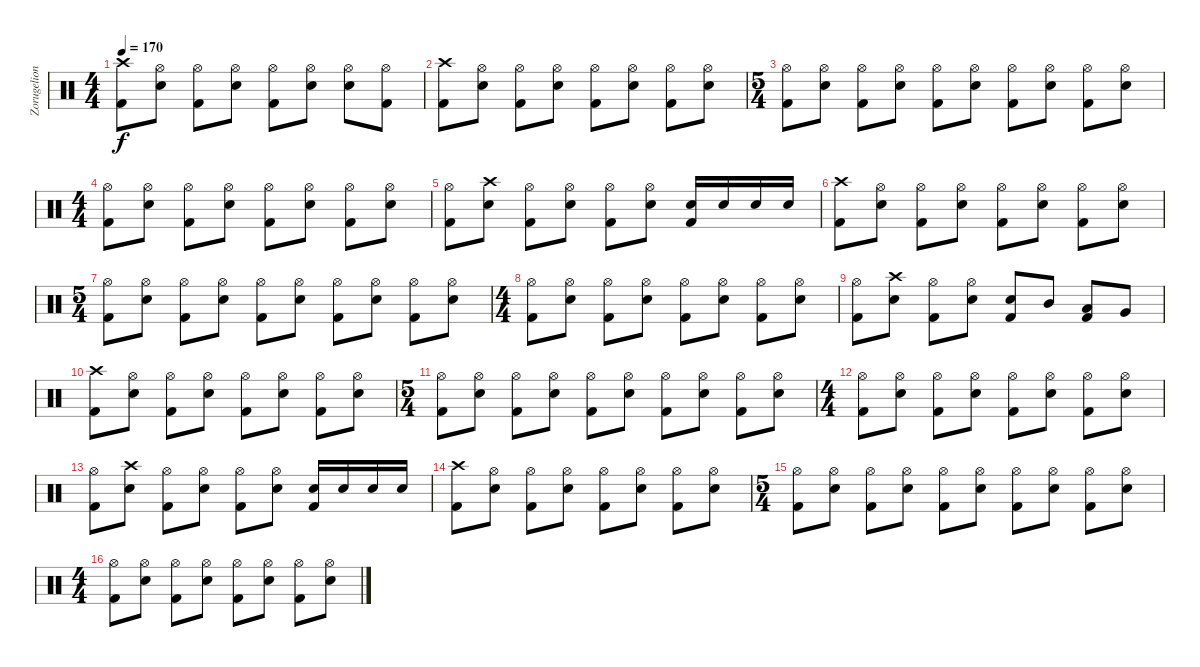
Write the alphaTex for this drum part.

\track ("Zorugelion" "Zorugelion") {instrument percussion}
\staff {score}
\articulation defaults
\ts (4 4)
\tempo 170
\clef neutral
\ks c
("Crash high (hit)" "Kick (hit) 2").8{dy f} ("Hi-Hat (open)" "Electric Snare (hit)").8 ("Hi-Hat (open)" "Kick (hit) 2").8 ("Hi-Hat (open)" "Electric Snare (hit)").8 ("Hi-Hat (open)" "Kick (hit) 2").8 ("Hi-Hat (open)" "Electric Snare (hit)").8 ("Hi-Hat (open)" "Electric Snare (hit)").8 ("Hi-Hat (open)" "Kick (hit) 2").8 |
("Crash high (hit)" "Kick (hit) 2").8 ("Hi-Hat (open)" "Electric Snare (hit)").8 ("Hi-Hat (open)" "Kick (hit) 2").8 ("Hi-Hat (open)" "Electric Snare (hit)").8 ("Hi-Hat (open)" "Kick (hit) 2").8 ("Hi-Hat (open)" "Electric Snare (hit)").8 ("Hi-Hat (open)" "Kick (hit) 2").8 ("Hi-Hat (open)" "Electric Snare (hit)").8 |
\ts (5 4)
("Hi-Hat (open)" "Kick (hit) 2").8 ("Hi-Hat (open)" "Electric Snare (hit)").8 ("Hi-Hat (open)" "Kick (hit) 2").8 ("Hi-Hat (open)" "Electric Snare (hit)").8 ("Hi-Hat (open)" "Kick (hit) 2").8 ("Hi-Hat (open)" "Electric Snare (hit)").8 ("Hi-Hat (open)" "Kick (hit) 2").8 ("Hi-Hat (open)" "Electric Snare (hit)").8 ("Hi-Hat (open)" "Kick (hit) 2").8 ("Hi-Hat (open)" "Electric Snare (hit)").8 |
\ts (4 4)
("Hi-Hat (open)" "Kick (hit) 2").8 ("Hi-Hat (open)" "Electric Snare (hit)").8 ("Hi-Hat (open)" "Kick (hit) 2").8 ("Hi-Hat (open)" "Electric Snare (hit)").8 ("Hi-Hat (open)" "Kick (hit) 2").8 ("Hi-Hat (open)" "Electric Snare (hit)").8 ("Hi-Hat (open)" "Kick (hit) 2").8 ("Hi-Hat (open)" "Electric Snare (hit)").8 |
("Hi-Hat (open)" "Kick (hit) 2").8 ("Crash high (hit)" "Electric Snare (hit)").8 ("Hi-Hat (open)" "Kick (hit) 2").8 ("Hi-Hat (open)" "Electric Snare (hit)").8 ("Hi-Hat (open)" "Kick (hit) 2").8 ("Hi-Hat (open)" "Electric Snare (hit)").8 ("Electric Snare (hit)" "Kick (hit) 2").16 "Electric Snare (hit)".16 "Electric Snare (hit)".16 "Electric Snare (hit)".16 |
("Crash high (hit)" "Kick (hit) 2").8 ("Hi-Hat (open)" "Electric Snare (hit)").8 ("Hi-Hat (open)" "Kick (hit) 2").8 ("Hi-Hat (open)" "Electric Snare (hit)").8 ("Hi-Hat (open)" "Kick (hit) 2").8 ("Hi-Hat (open)" "Electric Snare (hit)").8 ("Hi-Hat (open)" "Kick (hit) 2").8 ("Hi-Hat (open)" "Electric Snare (hit)").8 |
\ts (5 4)
("Hi-Hat (open)" "Kick (hit) 2").8 ("Hi-Hat (open)" "Electric Snare (hit)").8 ("Hi-Hat (open)" "Kick (hit) 2").8 ("Hi-Hat (open)" "Electric Snare (hit)").8 ("Hi-Hat (open)" "Kick (hit) 2").8 ("Hi-Hat (open)" "Electric Snare (hit)").8 ("Hi-Hat (open)" "Kick (hit) 2").8 ("Hi-Hat (open)" "Electric Snare (hit)").8 ("Hi-Hat (open)" "Kick (hit) 2").8 ("Hi-Hat (open)" "Electric Snare (hit)").8 |
\ts (4 4)
("Hi-Hat (open)" "Kick (hit) 2").8 ("Hi-Hat (open)" "Electric Snare (hit)").8 ("Hi-Hat (open)" "Kick (hit) 2").8 ("Hi-Hat (open)" "Electric Snare (hit)").8 ("Hi-Hat (open)" "Kick (hit) 2").8 ("Hi-Hat (open)" "Electric Snare (hit)").8 ("Hi-Hat (open)" "Kick (hit) 2").8 ("Hi-Hat (open)" "Electric Snare (hit)").8 |
("Hi-Hat (open)" "Kick (hit) 2").8 ("Crash high (hit)" "Electric Snare (hit)").8 ("Hi-Hat (open)" "Kick (hit) 2").8 ("Hi-Hat (open)" "Electric Snare (hit)").8 ("Electric Snare (hit)" "Kick (hit) 2").8 "Mid Tom (hit)".8 ("Low Tom (hit)" "Kick (hit) 2").8 "Very Low Tom (hit)".8 |
("Crash high (hit)" "Kick (hit) 2").8 ("Hi-Hat (open)" "Electric Snare (hit)").8 ("Hi-Hat (open)" "Kick (hit) 2").8 ("Hi-Hat (open)" "Electric Snare (hit)").8 ("Hi-Hat (open)" "Kick (hit) 2").8 ("Hi-Hat (open)" "Electric Snare (hit)").8 ("Hi-Hat (open)" "Kick (hit) 2").8 ("Hi-Hat (open)" "Electric Snare (hit)").8 |
\ts (5 4)
("Hi-Hat (open)" "Kick (hit) 2").8 ("Hi-Hat (open)" "Electric Snare (hit)").8 ("Hi-Hat (open)" "Kick (hit) 2").8 ("Hi-Hat (open)" "Electric Snare (hit)").8 ("Hi-Hat (open)" "Kick (hit) 2").8 ("Hi-Hat (open)" "Electric Snare (hit)").8 ("Hi-Hat (open)" "Kick (hit) 2").8 ("Hi-Hat (open)" "Electric Snare (hit)").8 ("Hi-Hat (open)" "Kick (hit) 2").8 ("Hi-Hat (open)" "Electric Snare (hit)").8 |
\ts (4 4)
("Hi-Hat (open)" "Kick (hit) 2").8 ("Hi-Hat (open)" "Electric Snare (hit)").8 ("Hi-Hat (open)" "Kick (hit) 2").8 ("Hi-Hat (open)" "Electric Snare (hit)").8 ("Hi-Hat (open)" "Kick (hit) 2").8 ("Hi-Hat (open)" "Electric Snare (hit)").8 ("Hi-Hat (open)" "Kick (hit) 2").8 ("Hi-Hat (open)" "Electric Snare (hit)").8 |
("Hi-Hat (open)" "Kick (hit) 2").8 ("Crash high (hit)" "Electric Snare (hit)").8 ("Hi-Hat (open)" "Kick (hit) 2").8 ("Hi-Hat (open)" "Electric Snare (hit)").8 ("Hi-Hat (open)" "Kick (hit) 2").8 ("Hi-Hat (open)" "Electric Snare (hit)").8 ("Electric Snare (hit)" "Kick (hit) 2").16 "Electric Snare (hit)".16 "Electric Snare (hit)".16 "Electric Snare (hit)".16 |
("Crash high (hit)" "Kick (hit) 2").8 ("Hi-Hat (open)" "Electric Snare (hit)").8 ("Hi-Hat (open)" "Kick (hit) 2").8 ("Hi-Hat (open)" "Electric Snare (hit)").8 ("Hi-Hat (open)" "Kick (hit) 2").8 ("Hi-Hat (open)" "Electric Snare (hit)").8 ("Hi-Hat (open)" "Kick (hit) 2").8 ("Hi-Hat (open)" "Electric Snare (hit)").8 |
\ts (5 4)
("Hi-Hat (open)" "Kick (hit) 2").8 ("Hi-Hat (open)" "Electric Snare (hit)").8 ("Hi-Hat (open)" "Kick (hit) 2").8 ("Hi-Hat (open)" "Electric Snare (hit)").8 ("Hi-Hat (open)" "Kick (hit) 2").8 ("Hi-Hat (open)" "Electric Snare (hit)").8 ("Hi-Hat (open)" "Kick (hit) 2").8 ("Hi-Hat (open)" "Electric Snare (hit)").8 ("Hi-Hat (open)" "Kick (hit) 2").8 ("Hi-Hat (open)" "Electric Snare (hit)").8 |
\ts (4 4)
("Hi-Hat (open)" "Kick (hit) 2").8 ("Hi-Hat (open)" "Electric Snare (hit)").8 ("Hi-Hat (open)" "Kick (hit) 2").8 ("Hi-Hat (open)" "Electric Snare (hit)").8 ("Hi-Hat (open)" "Kick (hit) 2").8 ("Hi-Hat (open)" "Electric Snare (hit)").8 ("Hi-Hat (open)" "Kick (hit) 2").8 ("Hi-Hat (open)" "Electric Snare (hit)").8
